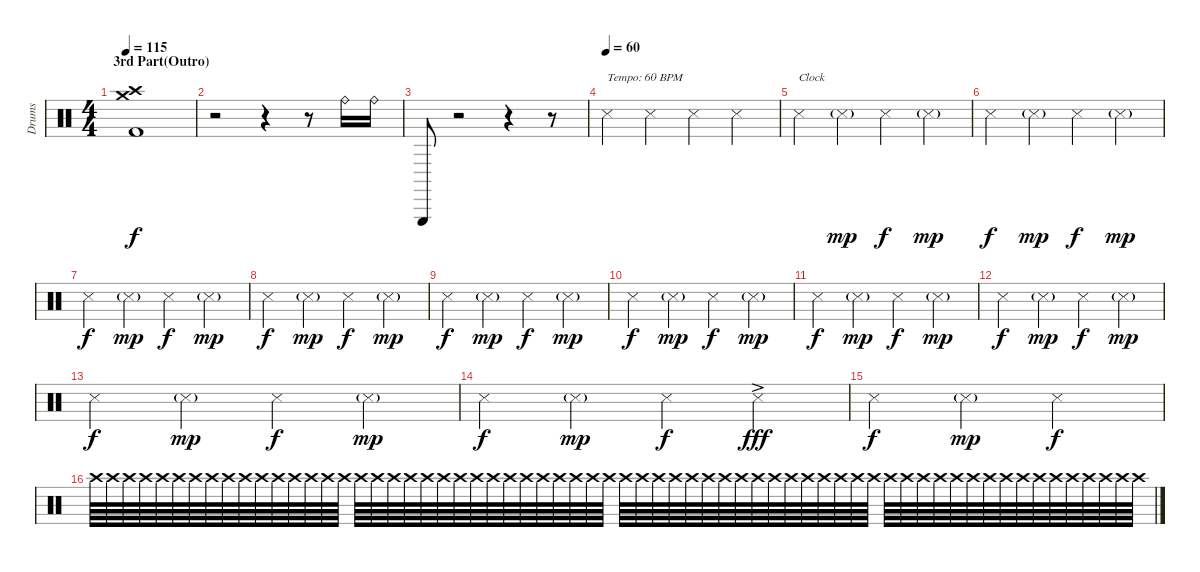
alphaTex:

\track ("Drums" "Drums") {instrument percussion}
\staff {score}
\articulation defaults
\ts (4 4)
\section ("" "3rd Part(Outro)")
\tempo 115
\clef neutral
\ks c
("Crash high (hit)" "Crash medium (hit)" "Kick (hit) 2").1{dy f} |
r.2 r.4 r.8 "Ride (bell)".16 "Ride (bell)".16 |
"Triangle (hit)".8 r.2 r.4 r.8 |
\tempo (60)
"Metronome (hit)".4{txt "Tempo: 60 BPM" volume 4 balance 16} "Metronome (hit)".4{volume 8} "Metronome (hit)".4{volume 12} "Metronome (hit)".4{volume 16} |
"Metronome (hit)".4{txt "Clock"} "Metronome (hit)"{g}.4{dy mp} "Metronome (hit)".4{dy f} "Metronome (hit)"{g}.4{dy mp} |
"Metronome (hit)".4{dy f} "Metronome (hit)"{g}.4{dy mp} "Metronome (hit)".4{dy f} "Metronome (hit)"{g}.4{dy mp} |
"Metronome (hit)".4{dy f} "Metronome (hit)"{g}.4{dy mp} "Metronome (hit)".4{dy f} "Metronome (hit)"{g}.4{dy mp} |
"Metronome (hit)".4{dy f} "Metronome (hit)"{g}.4{dy mp} "Metronome (hit)".4{dy f} "Metronome (hit)"{g}.4{dy mp} |
"Metronome (hit)".4{dy f} "Metronome (hit)"{g}.4{dy mp} "Metronome (hit)".4{dy f} "Metronome (hit)"{g}.4{dy mp} |
"Metronome (hit)".4{dy f} "Metronome (hit)"{g}.4{dy mp} "Metronome (hit)".4{dy f} "Metronome (hit)"{g}.4{dy mp} |
"Metronome (hit)".4{dy f} "Metronome (hit)"{g}.4{dy mp} "Metronome (hit)".4{dy f} "Metronome (hit)"{g}.4{dy mp} |
"Metronome (hit)".4{dy f} "Metronome (hit)"{g}.4{dy mp} "Metronome (hit)".4{dy f} "Metronome (hit)"{g}.4{dy mp} |
"Metronome (hit)".4{dy f} "Metronome (hit)"{g}.4{dy mp} "Metronome (hit)".4{dy f} "Metronome (hit)"{g}.4{dy mp} |
"Metronome (hit)".4{dy f} "Metronome (hit)"{g}.4{dy mp} "Metronome (hit)".4{dy f} "Metronome (hit)"{ac}.4{dy fff} |
"Metronome (hit)".4{dy f volume 12} "Metronome (hit)"{g}.4{dy mp volume 8} "Metronome (hit)".2{dy f volume 4} |
"Crash high (hit)".64{volume 1 balance 8} "Crash high (hit)".64 "Crash high (hit)".64 "Crash high (hit)".64 "Crash high (hit)".64 "Crash high (hit)".64{volume 2} "Crash high (hit)".64 "Crash high (hit)".64 "Crash high (hit)".64 "Crash high (hit)".64 "Crash high (hit)".64{volume 3} "Crash high (hit)".64 "Crash high (hit)".64 "Crash high (hit)".64 "Crash high (hit)".64 "Crash high (hit)".64 "Crash high (hit)".64{volume 4} "Crash high (hit)".64 "Crash high (hit)".64 "Crash high (hit)".64 "Crash high (hit)".64 "Crash high (hit)".64 "Crash high (hit)".64{volume 5} "Crash high (hit)".64 "Crash high (hit)".64 "Crash high (hit)".64 "Crash high (hit)".64 "Crash high (hit)".64{volume 6} "Crash high (hit)".64 "Crash high (hit)".64 "Crash high (hit)".64 "Crash high (hit)".64 "Crash high (hit)".64{volume 7} "Crash high (hit)".64 "Crash high (hit)".64 "Crash high (hit)".64{volume 8} "Crash high (hit)".64 "Crash high (hit)".64 "Crash high (hit)".64 "Crash high (hit)".64{volume 9} "Crash high (hit)".64 "Crash high (hit)".64 "Crash high (hit)".64 "Crash high (hit)".64{volume 10} "Crash high (hit)".64 "Crash high (hit)".64 "Crash high (hit)".64{volume 11} "Crash high (hit)".64 "Crash high (hit)".64 "Crash high (hit)".64{volume 12} "Crash high (hit)".64 "Crash high (hit)".64 "Crash high (hit)".64{volume 13} "Crash high (hit)".64 "Crash high (hit)".64 "Crash high (hit)".64{volume 14} "Crash high (hit)".64 "Crash high (hit)".64 "Crash high (hit)".64 "Crash high (hit)".64 "Crash high (hit)".64 "Crash high (hit)".64 "Crash high (hit)".64 "Crash high (hit)".64
